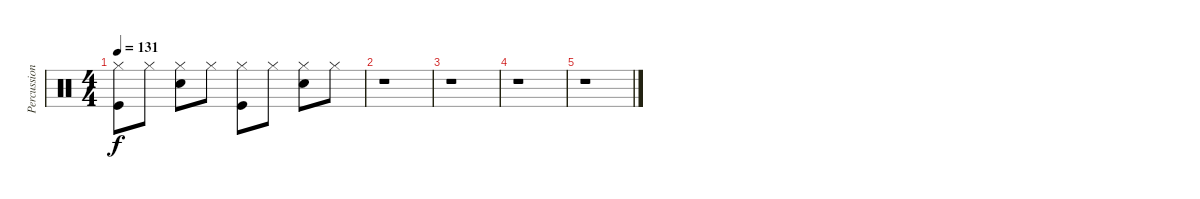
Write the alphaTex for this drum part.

\track ("Percussions" "Percussion") {instrument percussion}
\staff {score}
\articulation defaults
\ts (4 4)
\tempo 131
\clef neutral
\ks c
("Hi-Hat (closed)" "Kick (hit)").8{dy f} "Hi-Hat (closed)".8 ("Hi-Hat (closed)" "Snare (hit) 2").8 "Hi-Hat (closed)".8 ("Hi-Hat (closed)" "Kick (hit)").8 "Hi-Hat (closed)".8 ("Hi-Hat (closed)" "Snare (hit) 2").8 "Hi-Hat (closed)".8 |
r.1 |
r.1 |
r.1 |
r.1
